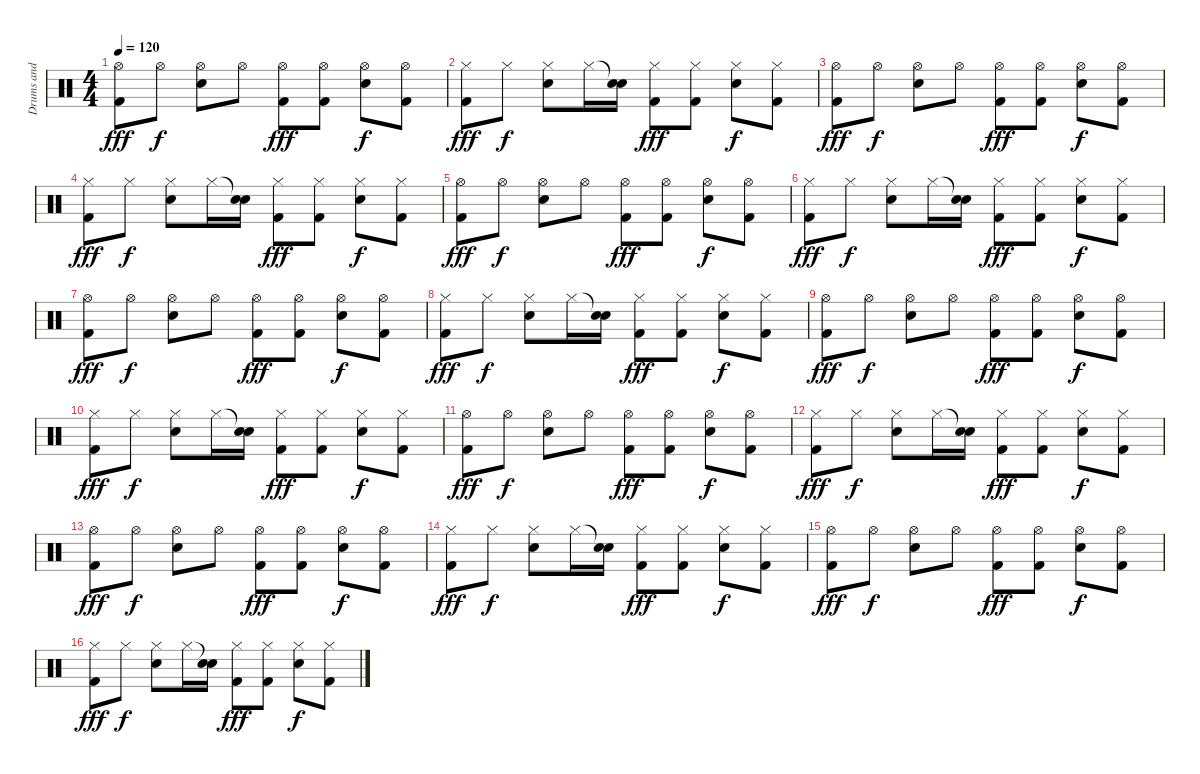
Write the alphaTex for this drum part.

\track ("Drums and Percussion" "Drums and ") {instrument percussion}
\staff {score}
\articulation defaults
\ts (4 4)
\tempo 120
\clef neutral
\ks c
("Hi-Hat (open)" "Kick (hit) 2").8{dy fff} "Hi-Hat (open)".8{dy f} ("Hi-Hat (open)" "Snare (hit) 2").8 "Hi-Hat (open)".8 ("Hi-Hat (open)" "Kick (hit) 2").8{dy fff} ("Hi-Hat (open)" "Kick (hit) 2").8 ("Hi-Hat (open)" "Snare (hit) 2").8{dy f} ("Hi-Hat (open)" "Kick (hit) 2").8 |
("Hi-Hat (closed)" "Kick (hit) 2").8{dy fff} "Hi-Hat (closed)".8{dy f} ("Hi-Hat (closed)" "Snare (hit) 2").8 "Hi-Hat (closed)".16 ("Snare (hit)"{t} "Snare (hit) 2").16 ("Hi-Hat (closed)" "Kick (hit) 2").8{dy fff} ("Hi-Hat (closed)" "Kick (hit) 2").8 ("Hi-Hat (closed)" "Snare (hit) 2").8{dy f} ("Hi-Hat (closed)" "Kick (hit) 2").8 |
("Hi-Hat (open)" "Kick (hit) 2").8{dy fff} "Hi-Hat (open)".8{dy f} ("Hi-Hat (open)" "Snare (hit) 2").8 "Hi-Hat (open)".8 ("Hi-Hat (open)" "Kick (hit) 2").8{dy fff} ("Hi-Hat (open)" "Kick (hit) 2").8 ("Hi-Hat (open)" "Snare (hit) 2").8{dy f} ("Hi-Hat (open)" "Kick (hit) 2").8 |
("Hi-Hat (closed)" "Kick (hit) 2").8{dy fff} "Hi-Hat (closed)".8{dy f} ("Hi-Hat (closed)" "Snare (hit) 2").8 "Hi-Hat (closed)".16 ("Snare (hit)"{t} "Snare (hit) 2").16 ("Hi-Hat (closed)" "Kick (hit) 2").8{dy fff} ("Hi-Hat (closed)" "Kick (hit) 2").8 ("Hi-Hat (closed)" "Snare (hit) 2").8{dy f} ("Hi-Hat (closed)" "Kick (hit) 2").8 |
("Hi-Hat (open)" "Kick (hit) 2").8{dy fff} "Hi-Hat (open)".8{dy f} ("Hi-Hat (open)" "Snare (hit) 2").8 "Hi-Hat (open)".8 ("Hi-Hat (open)" "Kick (hit) 2").8{dy fff} ("Hi-Hat (open)" "Kick (hit) 2").8 ("Hi-Hat (open)" "Snare (hit) 2").8{dy f} ("Hi-Hat (open)" "Kick (hit) 2").8 |
("Hi-Hat (closed)" "Kick (hit) 2").8{dy fff} "Hi-Hat (closed)".8{dy f} ("Hi-Hat (closed)" "Snare (hit) 2").8 "Hi-Hat (closed)".16 ("Snare (hit)"{t} "Snare (hit) 2").16 ("Hi-Hat (closed)" "Kick (hit) 2").8{dy fff} ("Hi-Hat (closed)" "Kick (hit) 2").8 ("Hi-Hat (closed)" "Snare (hit) 2").8{dy f} ("Hi-Hat (closed)" "Kick (hit) 2").8 |
("Hi-Hat (open)" "Kick (hit) 2").8{dy fff} "Hi-Hat (open)".8{dy f} ("Hi-Hat (open)" "Snare (hit) 2").8 "Hi-Hat (open)".8 ("Hi-Hat (open)" "Kick (hit) 2").8{dy fff} ("Hi-Hat (open)" "Kick (hit) 2").8 ("Hi-Hat (open)" "Snare (hit) 2").8{dy f} ("Hi-Hat (open)" "Kick (hit) 2").8 |
("Hi-Hat (closed)" "Kick (hit) 2").8{dy fff} "Hi-Hat (closed)".8{dy f} ("Hi-Hat (closed)" "Snare (hit) 2").8 "Hi-Hat (closed)".16 ("Snare (hit)"{t} "Snare (hit) 2").16 ("Hi-Hat (closed)" "Kick (hit) 2").8{dy fff} ("Hi-Hat (closed)" "Kick (hit) 2").8 ("Hi-Hat (closed)" "Snare (hit) 2").8{dy f} ("Hi-Hat (closed)" "Kick (hit) 2").8 |
("Hi-Hat (open)" "Kick (hit) 2").8{dy fff} "Hi-Hat (open)".8{dy f} ("Hi-Hat (open)" "Snare (hit) 2").8 "Hi-Hat (open)".8 ("Hi-Hat (open)" "Kick (hit) 2").8{dy fff} ("Hi-Hat (open)" "Kick (hit) 2").8 ("Hi-Hat (open)" "Snare (hit) 2").8{dy f} ("Hi-Hat (open)" "Kick (hit) 2").8 |
("Hi-Hat (closed)" "Kick (hit) 2").8{dy fff} "Hi-Hat (closed)".8{dy f} ("Hi-Hat (closed)" "Snare (hit) 2").8 "Hi-Hat (closed)".16 ("Snare (hit)"{t} "Snare (hit) 2").16 ("Hi-Hat (closed)" "Kick (hit) 2").8{dy fff} ("Hi-Hat (closed)" "Kick (hit) 2").8 ("Hi-Hat (closed)" "Snare (hit) 2").8{dy f} ("Hi-Hat (closed)" "Kick (hit) 2").8 |
("Hi-Hat (open)" "Kick (hit) 2").8{dy fff} "Hi-Hat (open)".8{dy f} ("Hi-Hat (open)" "Snare (hit) 2").8 "Hi-Hat (open)".8 ("Hi-Hat (open)" "Kick (hit) 2").8{dy fff} ("Hi-Hat (open)" "Kick (hit) 2").8 ("Hi-Hat (open)" "Snare (hit) 2").8{dy f} ("Hi-Hat (open)" "Kick (hit) 2").8 |
("Hi-Hat (closed)" "Kick (hit) 2").8{dy fff} "Hi-Hat (closed)".8{dy f} ("Hi-Hat (closed)" "Snare (hit) 2").8 "Hi-Hat (closed)".16 ("Snare (hit)"{t} "Snare (hit) 2").16 ("Hi-Hat (closed)" "Kick (hit) 2").8{dy fff} ("Hi-Hat (closed)" "Kick (hit) 2").8 ("Hi-Hat (closed)" "Snare (hit) 2").8{dy f} ("Hi-Hat (closed)" "Kick (hit) 2").8 |
("Hi-Hat (open)" "Kick (hit) 2").8{dy fff} "Hi-Hat (open)".8{dy f} ("Hi-Hat (open)" "Snare (hit) 2").8 "Hi-Hat (open)".8 ("Hi-Hat (open)" "Kick (hit) 2").8{dy fff} ("Hi-Hat (open)" "Kick (hit) 2").8 ("Hi-Hat (open)" "Snare (hit) 2").8{dy f} ("Hi-Hat (open)" "Kick (hit) 2").8 |
("Hi-Hat (closed)" "Kick (hit) 2").8{dy fff} "Hi-Hat (closed)".8{dy f} ("Hi-Hat (closed)" "Snare (hit) 2").8 "Hi-Hat (closed)".16 ("Snare (hit)"{t} "Snare (hit) 2").16 ("Hi-Hat (closed)" "Kick (hit) 2").8{dy fff} ("Hi-Hat (closed)" "Kick (hit) 2").8 ("Hi-Hat (closed)" "Snare (hit) 2").8{dy f} ("Hi-Hat (closed)" "Kick (hit) 2").8 |
("Hi-Hat (open)" "Kick (hit) 2").8{dy fff} "Hi-Hat (open)".8{dy f} ("Hi-Hat (open)" "Snare (hit) 2").8 "Hi-Hat (open)".8 ("Hi-Hat (open)" "Kick (hit) 2").8{dy fff} ("Hi-Hat (open)" "Kick (hit) 2").8 ("Hi-Hat (open)" "Snare (hit) 2").8{dy f} ("Hi-Hat (open)" "Kick (hit) 2").8 |
("Hi-Hat (closed)" "Kick (hit) 2").8{dy fff} "Hi-Hat (closed)".8{dy f} ("Hi-Hat (closed)" "Snare (hit) 2").8 "Hi-Hat (closed)".16 ("Snare (hit)"{t} "Snare (hit) 2").16 ("Hi-Hat (closed)" "Kick (hit) 2").8{dy fff} ("Hi-Hat (closed)" "Kick (hit) 2").8 ("Hi-Hat (closed)" "Snare (hit) 2").8{dy f} ("Hi-Hat (closed)" "Kick (hit) 2").8
